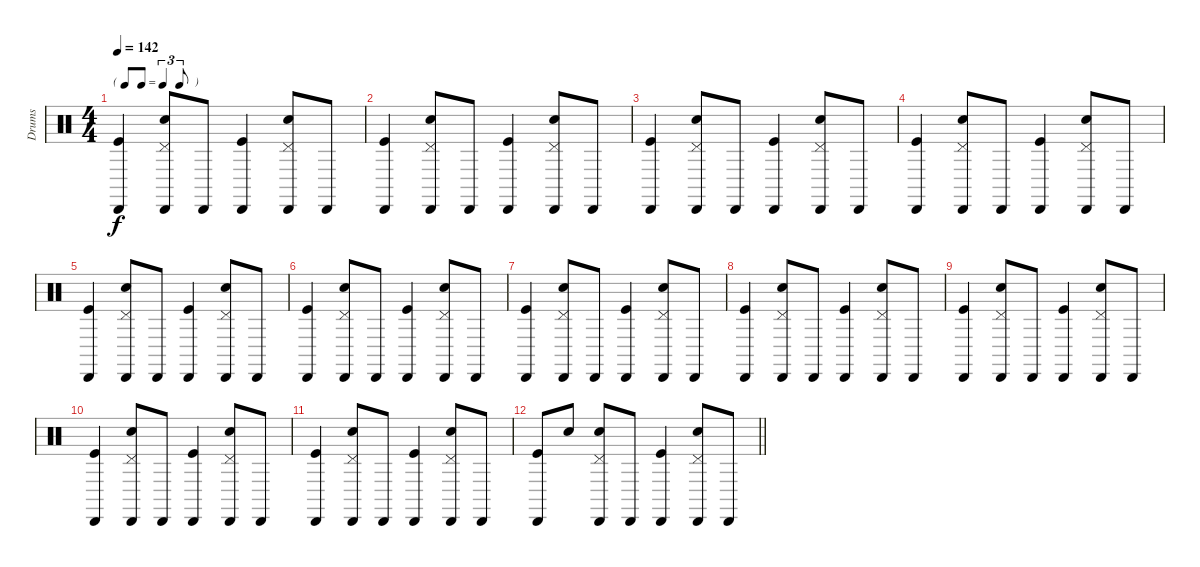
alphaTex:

\track ("Drums" "Drums") {instrument percussion}
\staff {score}
\articulation defaults
\ts (4 4)
\tf triplet8th
\tempo 142
\clef neutral
\ks c
("Cabasa (hit)" "Kick (hit)").4{dy f} ("Pedal Hi-Hat (hit)" "Cabasa (hit)" "Snare (hit) 2").8 "Cabasa (hit)".8 ("Cabasa (hit)" "Kick (hit)").4 ("Pedal Hi-Hat (hit)" "Cabasa (hit)" "Snare (hit) 2").8 "Cabasa (hit)".8 |
("Cabasa (hit)" "Kick (hit)").4 ("Pedal Hi-Hat (hit)" "Cabasa (hit)" "Snare (hit) 2").8 "Cabasa (hit)".8 ("Cabasa (hit)" "Kick (hit)").4 ("Pedal Hi-Hat (hit)" "Cabasa (hit)" "Snare (hit) 2").8 "Cabasa (hit)".8 |
("Cabasa (hit)" "Kick (hit)").4 ("Pedal Hi-Hat (hit)" "Cabasa (hit)" "Snare (hit) 2").8 "Cabasa (hit)".8 ("Cabasa (hit)" "Kick (hit)").4 ("Pedal Hi-Hat (hit)" "Cabasa (hit)" "Snare (hit) 2").8 "Cabasa (hit)".8 |
("Cabasa (hit)" "Kick (hit)").4 ("Pedal Hi-Hat (hit)" "Cabasa (hit)" "Snare (hit) 2").8 "Cabasa (hit)".8 ("Cabasa (hit)" "Kick (hit)").4 ("Pedal Hi-Hat (hit)" "Cabasa (hit)" "Snare (hit) 2").8 "Cabasa (hit)".8 |
("Cabasa (hit)" "Kick (hit)").4 ("Pedal Hi-Hat (hit)" "Cabasa (hit)" "Snare (hit) 2").8 "Cabasa (hit)".8 ("Cabasa (hit)" "Kick (hit)").4 ("Pedal Hi-Hat (hit)" "Cabasa (hit)" "Snare (hit) 2").8 "Cabasa (hit)".8 |
("Cabasa (hit)" "Kick (hit)").4 ("Pedal Hi-Hat (hit)" "Cabasa (hit)" "Snare (hit) 2").8 "Cabasa (hit)".8 ("Cabasa (hit)" "Kick (hit)").4 ("Pedal Hi-Hat (hit)" "Cabasa (hit)" "Snare (hit) 2").8 "Cabasa (hit)".8 |
("Cabasa (hit)" "Kick (hit)").4 ("Pedal Hi-Hat (hit)" "Cabasa (hit)" "Snare (hit) 2").8 "Cabasa (hit)".8 ("Cabasa (hit)" "Kick (hit)").4 ("Pedal Hi-Hat (hit)" "Cabasa (hit)" "Snare (hit) 2").8 "Cabasa (hit)".8 |
("Cabasa (hit)" "Kick (hit)").4 ("Pedal Hi-Hat (hit)" "Cabasa (hit)" "Snare (hit) 2").8 "Cabasa (hit)".8 ("Cabasa (hit)" "Kick (hit)").4 ("Pedal Hi-Hat (hit)" "Cabasa (hit)" "Snare (hit) 2").8 "Cabasa (hit)".8 |
("Cabasa (hit)" "Kick (hit)").4 ("Pedal Hi-Hat (hit)" "Cabasa (hit)" "Snare (hit) 2").8 "Cabasa (hit)".8 ("Cabasa (hit)" "Kick (hit)").4 ("Pedal Hi-Hat (hit)" "Cabasa (hit)" "Snare (hit) 2").8 "Cabasa (hit)".8 |
("Cabasa (hit)" "Kick (hit)").4 ("Pedal Hi-Hat (hit)" "Cabasa (hit)" "Snare (hit) 2").8 "Cabasa (hit)".8 ("Cabasa (hit)" "Kick (hit)").4 ("Pedal Hi-Hat (hit)" "Cabasa (hit)" "Snare (hit) 2").8 "Cabasa (hit)".8 |
("Cabasa (hit)" "Kick (hit)").4 ("Pedal Hi-Hat (hit)" "Cabasa (hit)" "Snare (hit) 2").8 "Cabasa (hit)".8 ("Cabasa (hit)" "Kick (hit)").4 ("Pedal Hi-Hat (hit)" "Cabasa (hit)" "Snare (hit) 2").8 "Cabasa (hit)".8 |
\barLineRight lightlight
("Cabasa (hit)" "Kick (hit)").8 "Snare (hit) 2".8 ("Pedal Hi-Hat (hit)" "Cabasa (hit)" "Snare (hit) 2").8 "Cabasa (hit)".8 ("Cabasa (hit)" "Kick (hit)").4 ("Pedal Hi-Hat (hit)" "Cabasa (hit)" "Snare (hit) 2").8 "Cabasa (hit)".8
